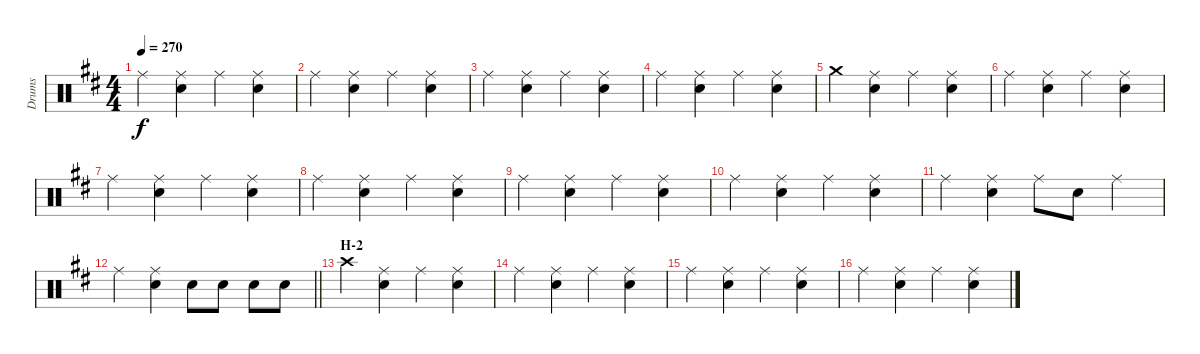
\track ("Drums" "Drums") {instrument percussion}
\staff {score}
\articulation defaults
\ts (4 4)
\tempo 270
\clef neutral
\ks d "Ride (middle)".4{dy f}
("Ride (middle)" "Snare (hit) 2").4 "Ride (middle)".4 ("Ride (middle)" "Snare (hit) 2").4 |
"Ride (middle)".4 ("Ride (middle)" "Snare (hit) 2").4 "Ride (middle)".4 ("Ride (middle)" "Snare (hit) 2").4 |
"Ride (middle)".4 ("Ride (middle)" "Snare (hit) 2").4 "Ride (middle)".4 ("Ride (middle)" "Snare (hit) 2").4 |
"Ride (middle)".4 ("Ride (middle)" "Snare (hit) 2").4 "Ride (middle)".4 ("Ride (middle)" "Snare (hit) 2").4 |
"Crash medium (hit)".4 ("Ride (middle)" "Snare (hit) 2").4 "Ride (middle)".4 ("Ride (middle)" "Snare (hit) 2").4 |
"Ride (middle)".4 ("Ride (middle)" "Snare (hit) 2").4 "Ride (middle)".4 ("Ride (middle)" "Snare (hit) 2").4 |
"Ride (middle)".4 ("Ride (middle)" "Snare (hit) 2").4 "Ride (middle)".4 ("Ride (middle)" "Snare (hit) 2").4 |
"Ride (middle)".4 ("Ride (middle)" "Snare (hit) 2").4 "Ride (middle)".4 ("Ride (middle)" "Snare (hit) 2").4 |
"Ride (middle)".4 ("Ride (middle)" "Snare (hit) 2").4 "Ride (middle)".4 ("Ride (middle)" "Snare (hit) 2").4 |
"Ride (middle)".4 ("Ride (middle)" "Snare (hit) 2").4 "Ride (middle)".4 ("Ride (middle)" "Snare (hit) 2").4 |
"Ride (middle)".4 ("Ride (middle)" "Snare (hit) 2").4 "Ride (middle)".8 "Snare (hit) 2".8 "Ride (middle)".4 |
\barLineRight lightlight "Ride (middle)".4
("Ride (middle)" "Snare (hit) 2").4 "Snare (hit) 2".8 "Snare (hit) 2".8 "Snare (hit) 2".8 "Snare (hit) 2".8 |
\section ("" "H-2")
"Crash high (hit)".4 ("Ride (middle)" "Snare (hit) 2").4 "Ride (middle)".4 ("Ride (middle)" "Snare (hit) 2").4 |
"Ride (middle)".4 ("Ride (middle)" "Snare (hit) 2").4 "Ride (middle)".4 ("Ride (middle)" "Snare (hit) 2").4 |
"Ride (middle)".4 ("Ride (middle)" "Snare (hit) 2").4 "Ride (middle)".4 ("Ride (middle)" "Snare (hit) 2").4 |
"Ride (middle)".4 ("Ride (middle)" "Snare (hit) 2").4 "Ride (middle)".4 ("Ride (middle)" "Snare (hit) 2").4
